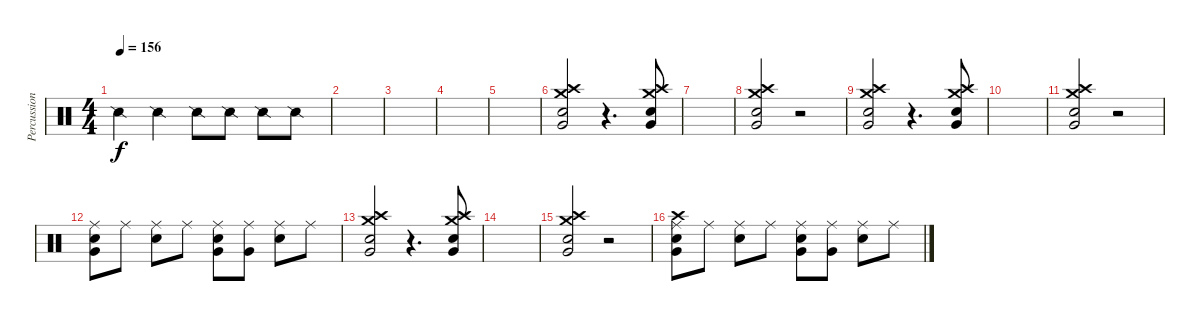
\track ("Percussions" "Percussion") {instrument percussion}
\staff {score}
\articulation defaults
\ts (4 4)
\tempo 156
\clef neutral
\ks c "Snare (side stick) 2".4{dy f} "Snare (side stick) 2".4 "Snare (side stick) 2".8 "Snare (side stick) 2".8 "Snare (side stick) 2".8 "Snare (side stick) 2".8
|
|
|
|
|
("Very Low Tom (hit)" "Crash high (hit)" "Crash medium (hit)" "Electric Snare (hit)").2 r.4{d} ("Very Low Tom (hit)" "Crash high (hit)" "Crash medium (hit)" "Electric Snare (hit)").8 |
|
("Very Low Tom (hit)" "Crash high (hit)" "Crash medium (hit)" "Electric Snare (hit)").2 r.2 |
("Very Low Tom (hit)" "Crash high (hit)" "Crash medium (hit)" "Electric Snare (hit)").2 r.4{d} ("Very Low Tom (hit)" "Crash high (hit)" "Crash medium (hit)" "Electric Snare (hit)").8 |
|
("Very Low Tom (hit)" "Crash high (hit)" "Crash medium (hit)" "Electric Snare (hit)").2 r.2 |
("Very Low Tom (hit)" "Electric Snare (hit)" "Ride (middle)").8 "Ride (middle)".8 ("Electric Snare (hit)" "Ride (middle)").8 "Ride (middle)".8 ("Very Low Tom (hit)" "Electric Snare (hit)" "Ride (middle)").8 ("Very Low Tom (hit)" "Ride (middle)").8 ("Electric Snare (hit)" "Ride (middle)").8 "Ride (middle)".8 |
("Very Low Tom (hit)" "Crash high (hit)" "Crash medium (hit)" "Electric Snare (hit)").2 r.4{d} ("Very Low Tom (hit)" "Crash high (hit)" "Crash medium (hit)" "Electric Snare (hit)").8 |
|
("Very Low Tom (hit)" "Crash high (hit)" "Crash medium (hit)" "Electric Snare (hit)").2 r.2 |
("Very Low Tom (hit)" "Crash high (hit)" "Electric Snare (hit)" "Ride (middle)").8 "Ride (middle)".8 ("Electric Snare (hit)" "Ride (middle)").8 "Ride (middle)".8 ("Very Low Tom (hit)" "Electric Snare (hit)" "Ride (middle)").8 ("Very Low Tom (hit)" "Ride (middle)").8 ("Electric Snare (hit)" "Ride (middle)").8 "Ride (middle)".8
